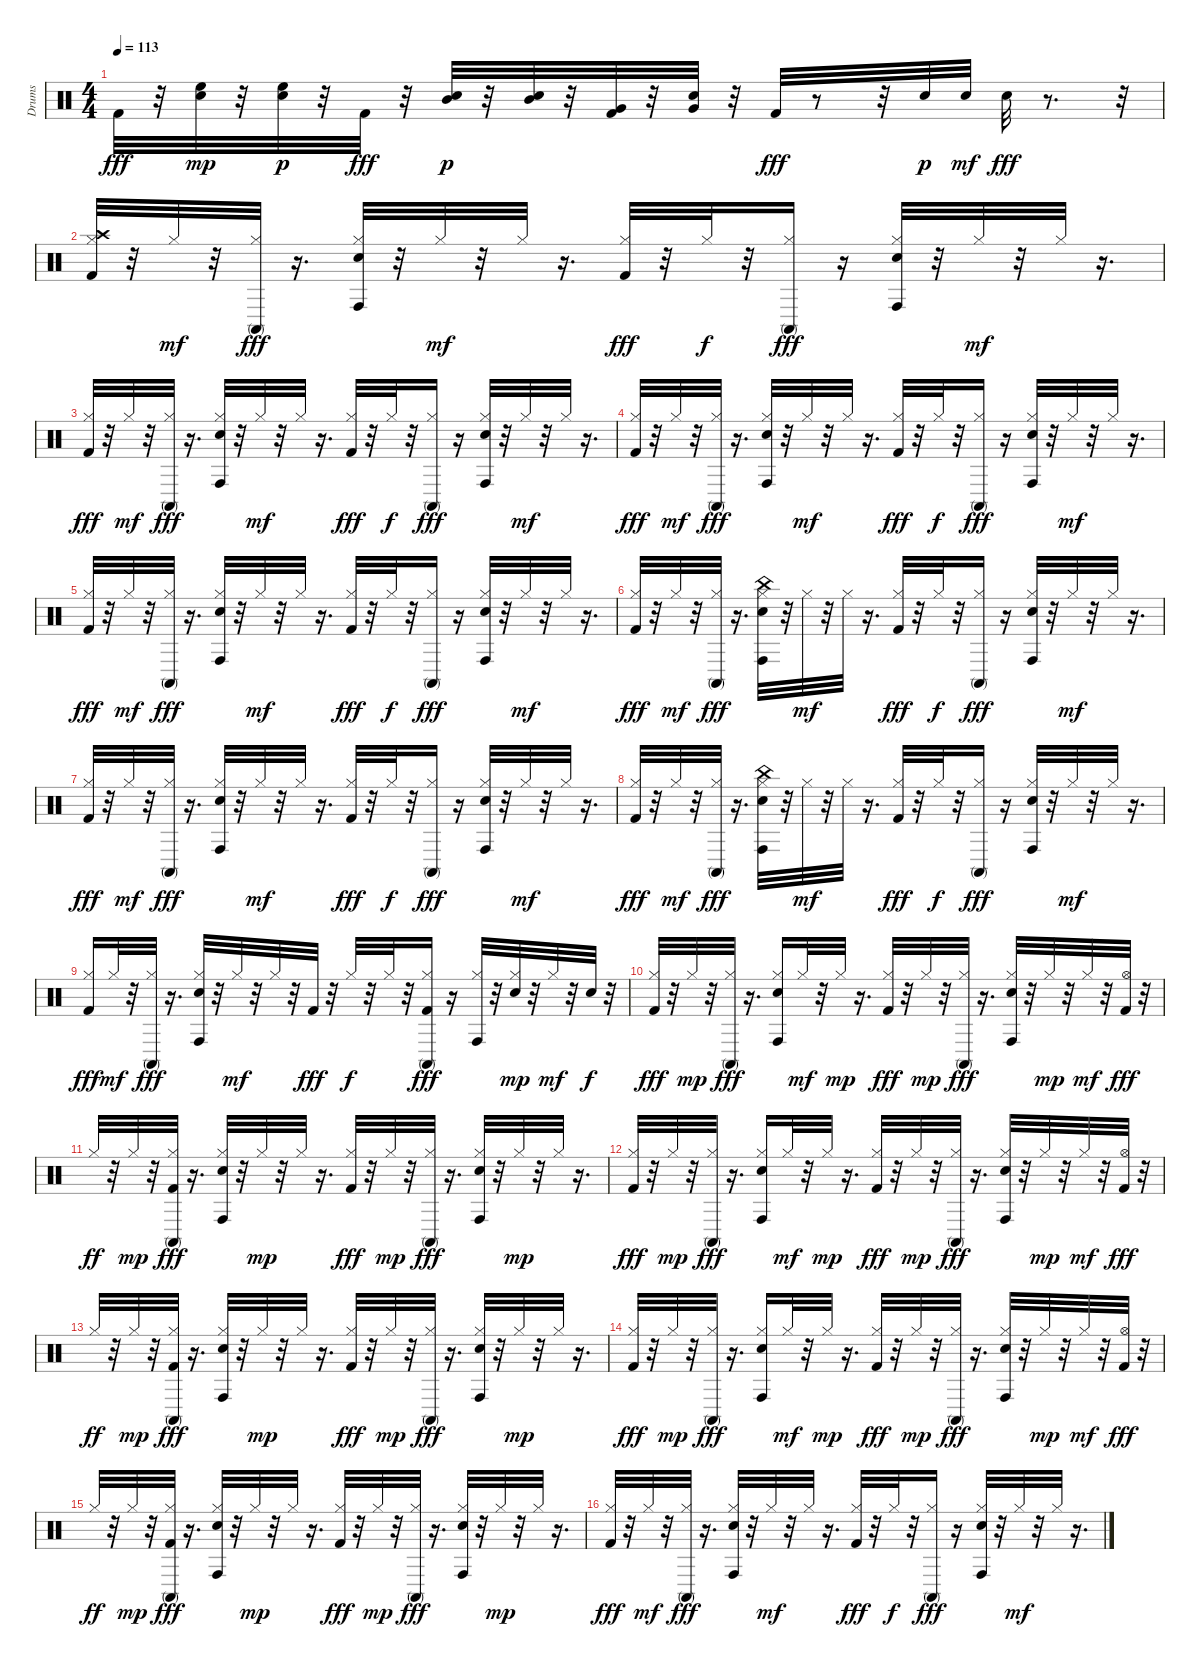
\track ("Drums   " "Drums   ") {instrument percussion}
\staff {score}
\articulation defaults
\ts (4 4)
\tempo 113
\clef neutral
\ks c "Kick (hit) 2".32{dy fff}
r.32 ("Electric Snare (hit)" "High Floor Tom (hit)").32{dy mp} r.32 ("Electric Snare (hit)" "High Floor Tom (hit)").32{dy p} r.32 "Kick (hit) 2".32{dy fff} r.32 ("Electric Snare (hit)" "Mid Tom (hit)").32{dy p} r.32 ("Electric Snare (hit)" "Mid Tom (hit)").32 r.32 ("Kick (hit) 2" "Very Low Tom (hit)").32 r.32 ("Electric Snare (hit)" "Very Low Tom (hit)").32 r.32 "Kick (hit) 2".32{dy fff} r.8 r.32 "Electric Snare (hit)".32{dy p} "Electric Snare (hit)".32{dy mf} "Electric Snare (hit)".32{dy fff} r.8{d} r.32 |
("Hi-Hat (closed)" "Kick (hit) 2" "Crash high (hit)").32 r.32 "Hi-Hat (closed)".32{dy mf} r.32 ("Hi-Hat (closed)" "Conga high (mute)").32{dy fff} r.16{d} ("Hi-Hat (closed)" "Electric Snare (hit)" "Conga high (hit)").32 r.32 "Hi-Hat (closed)".32{dy mf} r.32 "Hi-Hat (closed)".32 r.16{d} ("Hi-Hat (closed)" "Kick (hit) 2").32{dy fff} r.32 "Hi-Hat (closed)".32{dy f} r.32 ("Hi-Hat (closed)" "Conga high (mute)").16{dy fff} r.16 ("Hi-Hat (closed)" "Electric Snare (hit)" "Conga high (hit)").32 r.32 "Hi-Hat (closed)".32{dy mf} r.32 "Hi-Hat (closed)".32 r.16{d} |
("Hi-Hat (closed)" "Kick (hit) 2").32{dy fff} r.32 "Hi-Hat (closed)".32{dy mf} r.32 ("Hi-Hat (closed)" "Conga high (mute)").32{dy fff} r.16{d} ("Hi-Hat (closed)" "Electric Snare (hit)" "Conga high (hit)").32 r.32 "Hi-Hat (closed)".32{dy mf} r.32 "Hi-Hat (closed)".32 r.16{d} ("Hi-Hat (closed)" "Kick (hit) 2").32{dy fff} r.32 "Hi-Hat (closed)".32{dy f} r.32 ("Hi-Hat (closed)" "Conga high (mute)").16{dy fff} r.16 ("Hi-Hat (closed)" "Electric Snare (hit)" "Conga high (hit)").32 r.32 "Hi-Hat (closed)".32{dy mf} r.32 "Hi-Hat (closed)".32 r.16{d} |
("Hi-Hat (closed)" "Kick (hit) 2").32{dy fff} r.32 "Hi-Hat (closed)".32{dy mf} r.32 ("Hi-Hat (closed)" "Conga high (mute)").32{dy fff} r.16{d} ("Hi-Hat (closed)" "Electric Snare (hit)" "Conga high (hit)").32 r.32 "Hi-Hat (closed)".32{dy mf} r.32 "Hi-Hat (closed)".32 r.16{d} ("Hi-Hat (closed)" "Kick (hit) 2").32{dy fff} r.32 "Hi-Hat (closed)".32{dy f} r.32 ("Hi-Hat (closed)" "Conga high (mute)").16{dy fff} r.16 ("Hi-Hat (closed)" "Electric Snare (hit)" "Conga high (hit)").32 r.32 "Hi-Hat (closed)".32{dy mf} r.32 "Hi-Hat (closed)".32 r.16{d} |
("Hi-Hat (closed)" "Kick (hit) 2").32{dy fff} r.32 "Hi-Hat (closed)".32{dy mf} r.32 ("Hi-Hat (closed)" "Conga high (mute)").32{dy fff} r.16{d} ("Hi-Hat (closed)" "Electric Snare (hit)" "Conga high (hit)").32 r.32 "Hi-Hat (closed)".32{dy mf} r.32 "Hi-Hat (closed)".32 r.16{d} ("Hi-Hat (closed)" "Kick (hit) 2").32{dy fff} r.32 "Hi-Hat (closed)".32{dy f} r.32 ("Hi-Hat (closed)" "Conga high (mute)").16{dy fff} r.16 ("Hi-Hat (closed)" "Electric Snare (hit)" "Conga high (hit)").32 r.32 "Hi-Hat (closed)".32{dy mf} r.32 "Hi-Hat (closed)".32 r.16{d} |
("Hi-Hat (closed)" "Kick (hit) 2").32{dy fff} r.32 "Hi-Hat (closed)".32{dy mf} r.32 ("Hi-Hat (closed)" "Conga high (mute)").32{dy fff} r.16{d} ("Hi-Hat (closed)" "Electric Snare (hit)" "China (hit)" "Conga high (hit)").32 r.32 "Hi-Hat (closed)".32{dy mf} r.32 "Hi-Hat (closed)".32 r.16{d} ("Hi-Hat (closed)" "Kick (hit) 2").32{dy fff} r.32 "Hi-Hat (closed)".32{dy f} r.32 ("Hi-Hat (closed)" "Conga high (mute)").16{dy fff} r.16 ("Hi-Hat (closed)" "Electric Snare (hit)" "Conga high (hit)").32 r.32 "Hi-Hat (closed)".32{dy mf} r.32 "Hi-Hat (closed)".32 r.16{d} |
("Hi-Hat (closed)" "Kick (hit) 2").32{dy fff} r.32 "Hi-Hat (closed)".32{dy mf} r.32 ("Hi-Hat (closed)" "Conga high (mute)").32{dy fff} r.16{d} ("Hi-Hat (closed)" "Electric Snare (hit)" "Conga high (hit)").32 r.32 "Hi-Hat (closed)".32{dy mf} r.32 "Hi-Hat (closed)".32 r.16{d} ("Hi-Hat (closed)" "Kick (hit) 2").32{dy fff} r.32 "Hi-Hat (closed)".32{dy f} r.32 ("Hi-Hat (closed)" "Conga high (mute)").16{dy fff} r.16 ("Hi-Hat (closed)" "Electric Snare (hit)" "Conga high (hit)").32 r.32 "Hi-Hat (closed)".32{dy mf} r.32 "Hi-Hat (closed)".32 r.16{d} |
("Hi-Hat (closed)" "Kick (hit) 2").32{dy fff} r.32 "Hi-Hat (closed)".32{dy mf} r.32 ("Hi-Hat (closed)" "Conga high (mute)").32{dy fff} r.16{d} ("Hi-Hat (closed)" "Electric Snare (hit)" "China (hit)" "Conga high (hit)").32 r.32 "Hi-Hat (closed)".32{dy mf} r.32 "Hi-Hat (closed)".32 r.16{d} ("Hi-Hat (closed)" "Kick (hit) 2").32{dy fff} r.32 "Hi-Hat (closed)".32{dy f} r.32 ("Hi-Hat (closed)" "Conga high (mute)").16{dy fff} r.16 ("Hi-Hat (closed)" "Electric Snare (hit)" "Conga high (hit)").32 r.32 "Hi-Hat (closed)".32{dy mf} r.32 "Hi-Hat (closed)".32 r.16{d} |
("Hi-Hat (closed)" "Kick (hit) 2").16{dy fff} "Hi-Hat (closed)".32{dy mf} r.32 ("Hi-Hat (closed)" "Conga high (mute)").32{dy fff} r.16{d} ("Hi-Hat (closed)" "Electric Snare (hit)" "Conga high (hit)").32 r.32 "Hi-Hat (closed)".32{dy mf} r.32 "Hi-Hat (closed)".32 r.32 "Kick (hit) 2".32{dy fff} r.32 "Hi-Hat (closed)".32{dy f} r.32 "Hi-Hat (closed)".32 r.32 ("Hi-Hat (closed)" "Kick (hit) 2" "Conga high (mute)").16{dy fff} r.16 ("Hi-Hat (closed)" "Conga high (hit)").32 r.32 ("Hi-Hat (closed)" "Electric Snare (hit)").32{dy mp} r.32 "Hi-Hat (closed)".32{dy mf} r.32 "Electric Snare (hit)".32{dy f} r.32 |
("Hi-Hat (closed)" "Kick (hit) 2").32{dy fff} r.32 "Hi-Hat (closed)".32{dy mp} r.32 ("Hi-Hat (closed)" "Conga high (mute)").32{dy fff} r.16{d} ("Hi-Hat (closed)" "Electric Snare (hit)" "Conga high (hit)").16 "Hi-Hat (closed)".32{dy mf} r.32 "Hi-Hat (closed)".32{dy mp} r.16{d} ("Hi-Hat (closed)" "Kick (hit) 2").32{dy fff} r.32 "Hi-Hat (closed)".32{dy mp} r.32 ("Hi-Hat (closed)" "Conga high (mute)").32{dy fff} r.16{d} ("Hi-Hat (closed)" "Electric Snare (hit)" "Conga high (hit)").32 r.32 "Hi-Hat (closed)".32{dy mp} r.32 "Hi-Hat (closed)".32{dy mf} r.32 ("Kick (hit) 2" "Hi-Hat (open)").32{dy fff} r.32 |
"Hi-Hat (closed)".32{dy ff} r.32 "Hi-Hat (closed)".32{dy mp} r.32 ("Hi-Hat (closed)" "Kick (hit) 2" "Conga high (mute)").32{dy fff} r.16{d} ("Hi-Hat (closed)" "Electric Snare (hit)" "Conga high (hit)").32 r.32 "Hi-Hat (closed)".32{dy mp} r.32 "Hi-Hat (closed)".32 r.16{d} ("Hi-Hat (closed)" "Kick (hit) 2").32{dy fff} r.32 "Hi-Hat (closed)".32{dy mp} r.32 ("Hi-Hat (closed)" "Conga high (mute)").32{dy fff} r.16{d} ("Hi-Hat (closed)" "Electric Snare (hit)" "Conga high (hit)").32 r.32 "Hi-Hat (closed)".32{dy mp} r.32 "Hi-Hat (closed)".32 r.16{d} |
("Hi-Hat (closed)" "Kick (hit) 2").32{dy fff} r.32 "Hi-Hat (closed)".32{dy mp} r.32 ("Hi-Hat (closed)" "Conga high (mute)").32{dy fff} r.16{d} ("Hi-Hat (closed)" "Electric Snare (hit)" "Conga high (hit)").16 "Hi-Hat (closed)".32{dy mf} r.32 "Hi-Hat (closed)".32{dy mp} r.16{d} ("Hi-Hat (closed)" "Kick (hit) 2").32{dy fff} r.32 "Hi-Hat (closed)".32{dy mp} r.32 ("Hi-Hat (closed)" "Conga high (mute)").32{dy fff} r.16{d} ("Hi-Hat (closed)" "Electric Snare (hit)" "Conga high (hit)").32 r.32 "Hi-Hat (closed)".32{dy mp} r.32 "Hi-Hat (closed)".32{dy mf} r.32 ("Kick (hit) 2" "Hi-Hat (open)").32{dy fff} r.32 |
"Hi-Hat (closed)".32{dy ff} r.32 "Hi-Hat (closed)".32{dy mp} r.32 ("Hi-Hat (closed)" "Kick (hit) 2" "Conga high (mute)").32{dy fff} r.16{d} ("Hi-Hat (closed)" "Electric Snare (hit)" "Conga high (hit)").32 r.32 "Hi-Hat (closed)".32{dy mp} r.32 "Hi-Hat (closed)".32 r.16{d} ("Hi-Hat (closed)" "Kick (hit) 2").32{dy fff} r.32 "Hi-Hat (closed)".32{dy mp} r.32 ("Hi-Hat (closed)" "Conga high (mute)").32{dy fff} r.16{d} ("Hi-Hat (closed)" "Electric Snare (hit)" "Conga high (hit)").32 r.32 "Hi-Hat (closed)".32{dy mp} r.32 "Hi-Hat (closed)".32 r.16{d} |
("Hi-Hat (closed)" "Kick (hit) 2").32{dy fff} r.32 "Hi-Hat (closed)".32{dy mp} r.32 ("Hi-Hat (closed)" "Conga high (mute)").32{dy fff} r.16{d} ("Hi-Hat (closed)" "Electric Snare (hit)" "Conga high (hit)").16 "Hi-Hat (closed)".32{dy mf} r.32 "Hi-Hat (closed)".32{dy mp} r.16{d} ("Hi-Hat (closed)" "Kick (hit) 2").32{dy fff} r.32 "Hi-Hat (closed)".32{dy mp} r.32 ("Hi-Hat (closed)" "Conga high (mute)").32{dy fff} r.16{d} ("Hi-Hat (closed)" "Electric Snare (hit)" "Conga high (hit)").32 r.32 "Hi-Hat (closed)".32{dy mp} r.32 "Hi-Hat (closed)".32{dy mf} r.32 ("Kick (hit) 2" "Hi-Hat (open)").32{dy fff} r.32 |
"Hi-Hat (closed)".32{dy ff} r.32 "Hi-Hat (closed)".32{dy mp} r.32 ("Hi-Hat (closed)" "Kick (hit) 2" "Conga high (mute)").32{dy fff} r.16{d} ("Hi-Hat (closed)" "Electric Snare (hit)" "Conga high (hit)").32 r.32 "Hi-Hat (closed)".32{dy mp} r.32 "Hi-Hat (closed)".32 r.16{d} ("Hi-Hat (closed)" "Kick (hit) 2").32{dy fff} r.32 "Hi-Hat (closed)".32{dy mp} r.32 ("Hi-Hat (closed)" "Conga high (mute)").32{dy fff} r.16{d} ("Hi-Hat (closed)" "Electric Snare (hit)" "Conga high (hit)").32 r.32 "Hi-Hat (closed)".32{dy mp} r.32 "Hi-Hat (closed)".32 r.16{d} |
("Hi-Hat (closed)" "Kick (hit) 2").32{dy fff} r.32 "Hi-Hat (closed)".32{dy mf} r.32 ("Hi-Hat (closed)" "Conga high (mute)").32{dy fff} r.16{d} ("Hi-Hat (closed)" "Electric Snare (hit)" "Conga high (hit)").32 r.32 "Hi-Hat (closed)".32{dy mf} r.32 "Hi-Hat (closed)".32 r.16{d} ("Hi-Hat (closed)" "Kick (hit) 2").32{dy fff} r.32 "Hi-Hat (closed)".32{dy f} r.32 ("Hi-Hat (closed)" "Conga high (mute)").16{dy fff} r.16 ("Hi-Hat (closed)" "Electric Snare (hit)" "Conga high (hit)").32 r.32 "Hi-Hat (closed)".32{dy mf} r.32 "Hi-Hat (closed)".32 r.16{d}
